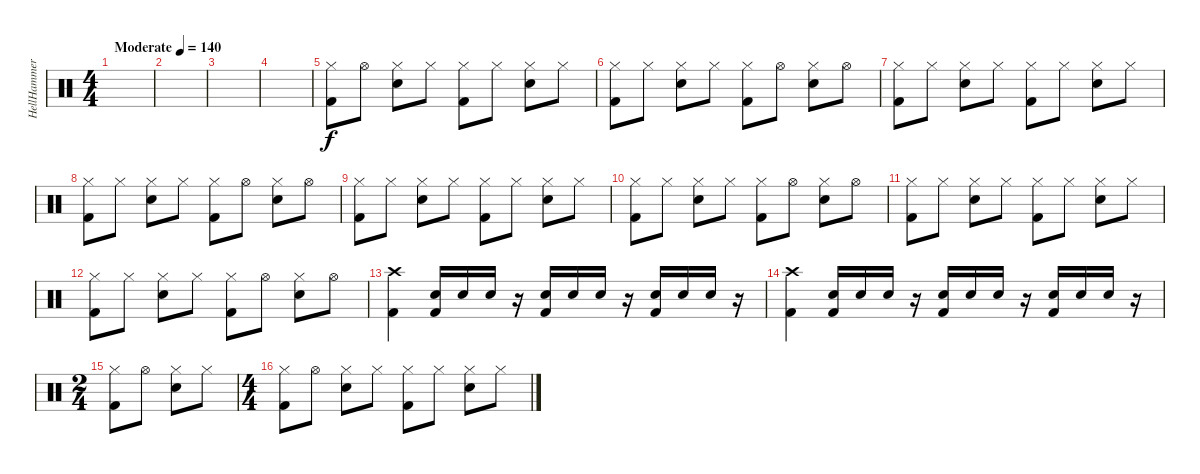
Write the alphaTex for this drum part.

\track ("HellHammer - Drums" "HellHammer") {instrument percussion}
\staff {score}
\articulation defaults
\ts (4 4)
\tempo (140 "Moderate")
\clef neutral
\ks c
|
|
|
|
("Hi-Hat (closed)" "Kick (hit) 2").8 "Hi-Hat (open)".8 ("Hi-Hat (closed)" "Snare (hit) 2").8 "Hi-Hat (closed)".8 ("Hi-Hat (closed)" "Kick (hit) 2").8 "Hi-Hat (closed)".8 ("Hi-Hat (closed)" "Snare (hit) 2").8 "Hi-Hat (closed)".8 |
("Hi-Hat (closed)" "Kick (hit) 2").8 "Hi-Hat (closed)".8 ("Hi-Hat (closed)" "Snare (hit) 2").8 "Hi-Hat (closed)".8 ("Hi-Hat (closed)" "Kick (hit) 2").8 "Hi-Hat (open)".8 ("Hi-Hat (closed)" "Snare (hit) 2").8 "Hi-Hat (open)".8 |
("Hi-Hat (closed)" "Kick (hit) 2").8 "Hi-Hat (closed)".8 ("Hi-Hat (closed)" "Snare (hit) 2").8 "Hi-Hat (closed)".8 ("Hi-Hat (closed)" "Kick (hit) 2").8 "Hi-Hat (closed)".8 ("Hi-Hat (closed)" "Snare (hit) 2").8 "Hi-Hat (closed)".8 |
("Hi-Hat (closed)" "Kick (hit) 2").8 "Hi-Hat (closed)".8 ("Hi-Hat (closed)" "Snare (hit) 2").8 "Hi-Hat (closed)".8 ("Hi-Hat (closed)" "Kick (hit) 2").8 "Hi-Hat (open)".8 ("Hi-Hat (closed)" "Snare (hit) 2").8 "Hi-Hat (open)".8 |
("Hi-Hat (closed)" "Kick (hit) 2").8 "Hi-Hat (closed)".8 ("Hi-Hat (closed)" "Snare (hit) 2").8 "Hi-Hat (closed)".8 ("Hi-Hat (closed)" "Kick (hit) 2").8 "Hi-Hat (closed)".8 ("Hi-Hat (closed)" "Snare (hit) 2").8 "Hi-Hat (closed)".8 |
("Hi-Hat (closed)" "Kick (hit) 2").8 "Hi-Hat (closed)".8 ("Hi-Hat (closed)" "Snare (hit) 2").8 "Hi-Hat (closed)".8 ("Hi-Hat (closed)" "Kick (hit) 2").8 "Hi-Hat (open)".8 ("Hi-Hat (closed)" "Snare (hit) 2").8 "Hi-Hat (open)".8 |
("Hi-Hat (closed)" "Kick (hit) 2").8 "Hi-Hat (closed)".8 ("Hi-Hat (closed)" "Snare (hit) 2").8 "Hi-Hat (closed)".8 ("Hi-Hat (closed)" "Kick (hit) 2").8 "Hi-Hat (closed)".8 ("Hi-Hat (closed)" "Snare (hit) 2").8 "Hi-Hat (closed)".8 |
("Hi-Hat (closed)" "Kick (hit) 2").8 "Hi-Hat (closed)".8 ("Hi-Hat (closed)" "Snare (hit) 2").8 "Hi-Hat (closed)".8 ("Hi-Hat (closed)" "Kick (hit) 2").8 "Hi-Hat (open)".8 ("Hi-Hat (closed)" "Snare (hit) 2").8 "Hi-Hat (open)".8 |
("Kick (hit) 2" "Crash high (hit)").4{volume 10} ("Kick (hit) 2" "Snare (hit) 2").16 "Snare (hit) 2".16 "Snare (hit) 2".16 r.16 ("Kick (hit) 2" "Snare (hit) 2").16 "Snare (hit) 2".16 "Snare (hit) 2".16 r.16 ("Kick (hit) 2" "Snare (hit) 2").16 "Snare (hit) 2".16 "Snare (hit) 2".16 r.16 |
("Kick (hit) 2" "Crash high (hit)").4 ("Kick (hit) 2" "Snare (hit) 2").16 "Snare (hit) 2".16 "Snare (hit) 2".16 r.16 ("Kick (hit) 2" "Snare (hit) 2").16 "Snare (hit) 2".16 "Snare (hit) 2".16 r.16 ("Kick (hit) 2" "Snare (hit) 2").16 "Snare (hit) 2".16 "Snare (hit) 2".16 r.16 |
\ts (2 4)
("Hi-Hat (closed)" "Kick (hit) 2").8{volume 8} "Hi-Hat (open)".8 ("Hi-Hat (closed)" "Snare (hit) 2").8 "Hi-Hat (closed)".8 |
\ts (4 4)
("Hi-Hat (closed)" "Kick (hit) 2").8{volume 13} "Hi-Hat (open)".8 ("Hi-Hat (closed)" "Snare (hit) 2").8 "Hi-Hat (closed)".8 ("Hi-Hat (closed)" "Kick (hit) 2").8 "Hi-Hat (closed)".8 ("Hi-Hat (closed)" "Snare (hit) 2").8 "Hi-Hat (closed)".8
